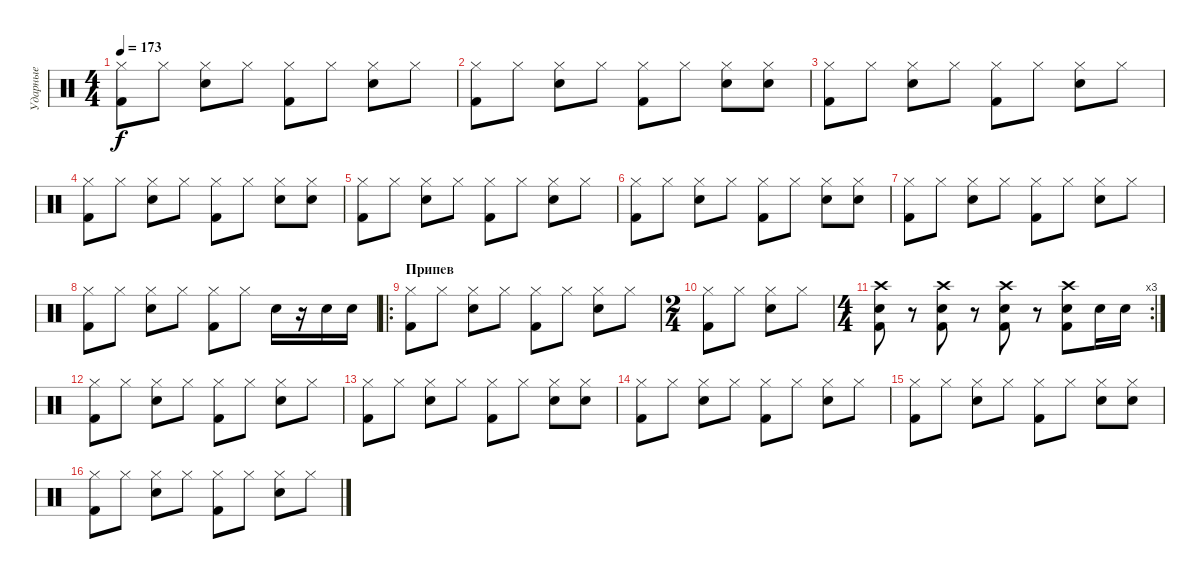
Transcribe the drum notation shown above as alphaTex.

\track ("Ударные" "Ударные") {instrument percussion}
\staff {score}
\articulation defaults
\ts (4 4)
\tempo 173
\clef neutral
\ks c
("Hi-Hat (closed)" "Kick (hit) 2").8{dy f} "Hi-Hat (closed)".8 ("Hi-Hat (closed)" "Electric Snare (hit)").8 "Hi-Hat (closed)".8 ("Hi-Hat (closed)" "Kick (hit) 2").8 "Hi-Hat (closed)".8 ("Hi-Hat (closed)" "Electric Snare (hit)").8 "Hi-Hat (closed)".8 |
("Hi-Hat (closed)" "Kick (hit) 2").8 "Hi-Hat (closed)".8 ("Hi-Hat (closed)" "Electric Snare (hit)").8 "Hi-Hat (closed)".8 ("Hi-Hat (closed)" "Kick (hit) 2").8 "Hi-Hat (closed)".8 ("Hi-Hat (closed)" "Electric Snare (hit)").8 ("Hi-Hat (closed)" "Electric Snare (hit)").8 |
("Hi-Hat (closed)" "Kick (hit) 2").8 "Hi-Hat (closed)".8 ("Hi-Hat (closed)" "Electric Snare (hit)").8 "Hi-Hat (closed)".8 ("Hi-Hat (closed)" "Kick (hit) 2").8 "Hi-Hat (closed)".8 ("Hi-Hat (closed)" "Electric Snare (hit)").8 "Hi-Hat (closed)".8 |
("Hi-Hat (closed)" "Kick (hit) 2").8 "Hi-Hat (closed)".8 ("Hi-Hat (closed)" "Electric Snare (hit)").8 "Hi-Hat (closed)".8 ("Hi-Hat (closed)" "Kick (hit) 2").8 "Hi-Hat (closed)".8 ("Hi-Hat (closed)" "Electric Snare (hit)").8 ("Hi-Hat (closed)" "Electric Snare (hit)").8 |
("Hi-Hat (closed)" "Kick (hit) 2").8 "Hi-Hat (closed)".8 ("Hi-Hat (closed)" "Electric Snare (hit)").8 "Hi-Hat (closed)".8 ("Hi-Hat (closed)" "Kick (hit) 2").8 "Hi-Hat (closed)".8 ("Hi-Hat (closed)" "Electric Snare (hit)").8 "Hi-Hat (closed)".8 |
("Hi-Hat (closed)" "Kick (hit) 2").8 "Hi-Hat (closed)".8 ("Hi-Hat (closed)" "Electric Snare (hit)").8 "Hi-Hat (closed)".8 ("Hi-Hat (closed)" "Kick (hit) 2").8 "Hi-Hat (closed)".8 ("Hi-Hat (closed)" "Electric Snare (hit)").8 ("Hi-Hat (closed)" "Electric Snare (hit)").8 |
("Hi-Hat (closed)" "Kick (hit) 2").8 "Hi-Hat (closed)".8 ("Hi-Hat (closed)" "Electric Snare (hit)").8 "Hi-Hat (closed)".8 ("Hi-Hat (closed)" "Kick (hit) 2").8 "Hi-Hat (closed)".8 ("Hi-Hat (closed)" "Electric Snare (hit)").8 "Hi-Hat (closed)".8 |
("Hi-Hat (closed)" "Kick (hit) 2").8 "Hi-Hat (closed)".8 ("Hi-Hat (closed)" "Electric Snare (hit)").8 "Hi-Hat (closed)".8 ("Hi-Hat (closed)" "Kick (hit) 2").8 "Hi-Hat (closed)".8 "Electric Snare (hit)".16 r.16 "Electric Snare (hit)".16 "Electric Snare (hit)".16 |
\ro
\section ("" "Припев")
("Hi-Hat (closed)" "Kick (hit) 2").8 "Hi-Hat (closed)".8 ("Hi-Hat (closed)" "Electric Snare (hit)").8 "Hi-Hat (closed)".8 ("Hi-Hat (closed)" "Kick (hit) 2").8 "Hi-Hat (closed)".8 ("Hi-Hat (closed)" "Electric Snare (hit)").8 "Hi-Hat (closed)".8 |
\ts (2 4)
("Hi-Hat (closed)" "Kick (hit) 2").8 "Hi-Hat (closed)".8 ("Hi-Hat (closed)" "Electric Snare (hit)").8 "Hi-Hat (closed)".8 |
\rc 3
\ts (4 4)
("Crash high (hit)" "Electric Snare (hit)" "Kick (hit) 2").8 r.8 ("Crash high (hit)" "Electric Snare (hit)" "Kick (hit) 2").8 r.8 ("Crash high (hit)" "Electric Snare (hit)" "Kick (hit) 2").8 r.8 ("Crash high (hit)" "Electric Snare (hit)" "Kick (hit) 2").8 "Electric Snare (hit)".16 "Electric Snare (hit)".16 |
("Hi-Hat (closed)" "Kick (hit) 2").8 "Hi-Hat (closed)".8 ("Hi-Hat (closed)" "Electric Snare (hit)").8 "Hi-Hat (closed)".8 ("Hi-Hat (closed)" "Kick (hit) 2").8 "Hi-Hat (closed)".8 ("Hi-Hat (closed)" "Electric Snare (hit)").8 "Hi-Hat (closed)".8 |
("Hi-Hat (closed)" "Kick (hit) 2").8 "Hi-Hat (closed)".8 ("Hi-Hat (closed)" "Electric Snare (hit)").8 "Hi-Hat (closed)".8 ("Hi-Hat (closed)" "Kick (hit) 2").8 "Hi-Hat (closed)".8 ("Hi-Hat (closed)" "Electric Snare (hit)").8 ("Hi-Hat (closed)" "Electric Snare (hit)").8 |
("Hi-Hat (closed)" "Kick (hit) 2").8 "Hi-Hat (closed)".8 ("Hi-Hat (closed)" "Electric Snare (hit)").8 "Hi-Hat (closed)".8 ("Hi-Hat (closed)" "Kick (hit) 2").8 "Hi-Hat (closed)".8 ("Hi-Hat (closed)" "Electric Snare (hit)").8 "Hi-Hat (closed)".8 |
("Hi-Hat (closed)" "Kick (hit) 2").8 "Hi-Hat (closed)".8 ("Hi-Hat (closed)" "Electric Snare (hit)").8 "Hi-Hat (closed)".8 ("Hi-Hat (closed)" "Kick (hit) 2").8 "Hi-Hat (closed)".8 ("Hi-Hat (closed)" "Electric Snare (hit)").8 ("Hi-Hat (closed)" "Electric Snare (hit)").8 |
("Hi-Hat (closed)" "Kick (hit) 2").8 "Hi-Hat (closed)".8 ("Hi-Hat (closed)" "Electric Snare (hit)").8 "Hi-Hat (closed)".8 ("Hi-Hat (closed)" "Kick (hit) 2").8 "Hi-Hat (closed)".8 ("Hi-Hat (closed)" "Electric Snare (hit)").8 "Hi-Hat (closed)".8
